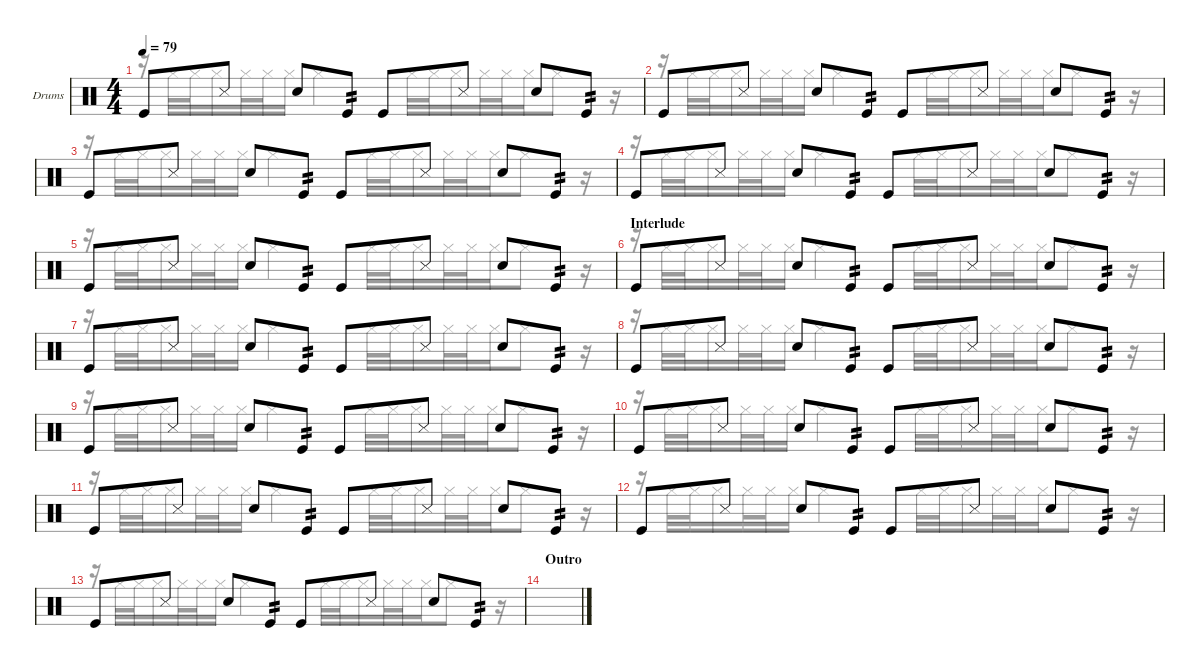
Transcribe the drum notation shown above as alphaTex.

\defaultSystemsLayout 4
\hideDynamics
\bracketExtendMode groupsimilarinstruments
\firstSystemTrackNameOrientation horizontal
\otherSystemsTrackNameOrientation horizontal
\track ("Drumkit" "Drums") {multiBarRest instrument percussion}
\staff {score}
\articulation defaults
\voice
\ts (4 4)
\tempo 79
\clef neutral
\ks c "Kick (hit)".8{dy mf} "Snare (side stick) 3".8 "Snare (hit) 2".8 "Kick (hit)".8{tp 2} "Kick (hit)".8 "Snare (side stick) 3".8 "Snare (hit) 2".8 "Kick (hit)".8{tp 2}
|
"Kick (hit)".8 "Snare (side stick) 3".8 "Snare (hit) 2".8 "Kick (hit)".8{tp 2} "Kick (hit)".8 "Snare (side stick) 3".8 "Snare (hit) 2".8 "Kick (hit)".8{tp 2} |
"Kick (hit)".8 "Snare (side stick) 3".8 "Snare (hit) 2".8 "Kick (hit)".8{tp 2} "Kick (hit)".8 "Snare (side stick) 3".8 "Snare (hit) 2".8 "Kick (hit)".8{tp 2} |
"Kick (hit)".8 "Snare (side stick) 3".8 "Snare (hit) 2".8 "Kick (hit)".8{tp 2} "Kick (hit)".8 "Snare (side stick) 3".8 "Snare (hit) 2".8 "Kick (hit)".8{tp 2} |
"Kick (hit)".8 "Snare (side stick) 3".8 "Snare (hit) 2".8 "Kick (hit)".8{tp 2} "Kick (hit)".8 "Snare (side stick) 3".8 "Snare (hit) 2".8 "Kick (hit)".8{tp 2} |
\section ("" "Interlude")
"Kick (hit)".8 "Snare (side stick) 3".8 "Snare (hit) 2".8 "Kick (hit)".8{tp 2} "Kick (hit)".8 "Snare (side stick) 3".8 "Snare (hit) 2".8 "Kick (hit)".8{tp 2} |
"Kick (hit)".8 "Snare (side stick) 3".8 "Snare (hit) 2".8 "Kick (hit)".8{tp 2} "Kick (hit)".8 "Snare (side stick) 3".8 "Snare (hit) 2".8 "Kick (hit)".8{tp 2} |
"Kick (hit)".8 "Snare (side stick) 3".8 "Snare (hit) 2".8 "Kick (hit)".8{tp 2} "Kick (hit)".8 "Snare (side stick) 3".8 "Snare (hit) 2".8 "Kick (hit)".8{tp 2} |
"Kick (hit)".8 "Snare (side stick) 3".8 "Snare (hit) 2".8 "Kick (hit)".8{tp 2} "Kick (hit)".8 "Snare (side stick) 3".8 "Snare (hit) 2".8 "Kick (hit)".8{tp 2} |
"Kick (hit)".8 "Snare (side stick) 3".8 "Snare (hit) 2".8 "Kick (hit)".8{tp 2} "Kick (hit)".8 "Snare (side stick) 3".8 "Snare (hit) 2".8 "Kick (hit)".8{tp 2} |
"Kick (hit)".8 "Snare (side stick) 3".8 "Snare (hit) 2".8 "Kick (hit)".8{tp 2} "Kick (hit)".8 "Snare (side stick) 3".8 "Snare (hit) 2".8 "Kick (hit)".8{tp 2} |
"Kick (hit)".8 "Snare (side stick) 3".8 "Snare (hit) 2".8 "Kick (hit)".8{tp 2} "Kick (hit)".8 "Snare (side stick) 3".8 "Snare (hit) 2".8 "Kick (hit)".8{tp 2} |
"Kick (hit)".8 "Snare (side stick) 3".8 "Snare (hit) 2".8 "Kick (hit)".8{tp 2} "Kick (hit)".8 "Snare (side stick) 3".8 "Snare (hit) 2".8 "Kick (hit)".8{tp 2} |
\section ("" "Outro")
|
|
\voice
\clef neutral
\ottava regular
\simile none
\ks c
r.16{dy mp} "Hi-Hat (closed)".32 "Hi-Hat (closed)".32 "Hi-Hat (closed)".16 "Hi-Hat (closed)".32 "Hi-Hat (closed)".32{beam merge} "Hi-Hat (closed)".16 "Hi-Hat (closed)".4 "Hi-Hat (closed)".32 "Hi-Hat (closed)".32 "Hi-Hat (closed)".16 "Hi-Hat (closed)".32 "Hi-Hat (closed)".32{beam merge} "Hi-Hat (closed)".16 "Hi-Hat (closed)".8 r.16 |
r.16 "Hi-Hat (closed)".32 "Hi-Hat (closed)".32 "Hi-Hat (closed)".16 "Hi-Hat (closed)".32 "Hi-Hat (closed)".32{beam merge} "Hi-Hat (closed)".16 "Hi-Hat (closed)".4 "Hi-Hat (closed)".32 "Hi-Hat (closed)".32 "Hi-Hat (closed)".16 "Hi-Hat (closed)".32 "Hi-Hat (closed)".32{beam merge} "Hi-Hat (closed)".16 "Hi-Hat (closed)".8 r.16 |
r.16 "Hi-Hat (closed)".32 "Hi-Hat (closed)".32 "Hi-Hat (closed)".16 "Hi-Hat (closed)".32 "Hi-Hat (closed)".32{beam merge} "Hi-Hat (closed)".16 "Hi-Hat (closed)".4 "Hi-Hat (closed)".32 "Hi-Hat (closed)".32 "Hi-Hat (closed)".16 "Hi-Hat (closed)".32 "Hi-Hat (closed)".32{beam merge} "Hi-Hat (closed)".16 "Hi-Hat (closed)".8 r.16 |
r.16 "Hi-Hat (closed)".32 "Hi-Hat (closed)".32 "Hi-Hat (closed)".16 "Hi-Hat (closed)".32 "Hi-Hat (closed)".32{beam merge} "Hi-Hat (closed)".16 "Hi-Hat (closed)".4 "Hi-Hat (closed)".32 "Hi-Hat (closed)".32 "Hi-Hat (closed)".16 "Hi-Hat (closed)".32 "Hi-Hat (closed)".32{beam merge} "Hi-Hat (closed)".16 "Hi-Hat (closed)".8 r.16 |
r.16 "Hi-Hat (closed)".32 "Hi-Hat (closed)".32 "Hi-Hat (closed)".16 "Hi-Hat (closed)".32 "Hi-Hat (closed)".32{beam merge} "Hi-Hat (closed)".16 "Hi-Hat (closed)".4 "Hi-Hat (closed)".32 "Hi-Hat (closed)".32 "Hi-Hat (closed)".16 "Hi-Hat (closed)".32 "Hi-Hat (closed)".32{beam merge} "Hi-Hat (closed)".16 "Hi-Hat (closed)".8 r.16 |
r.16 "Hi-Hat (closed)".32 "Hi-Hat (closed)".32 "Hi-Hat (closed)".16 "Hi-Hat (closed)".32 "Hi-Hat (closed)".32{beam merge} "Hi-Hat (closed)".16 "Hi-Hat (closed)".4 "Hi-Hat (closed)".32 "Hi-Hat (closed)".32 "Hi-Hat (closed)".16 "Hi-Hat (closed)".32 "Hi-Hat (closed)".32{beam merge} "Hi-Hat (closed)".16 "Hi-Hat (closed)".8 r.16 |
r.16 "Hi-Hat (closed)".32 "Hi-Hat (closed)".32 "Hi-Hat (closed)".16 "Hi-Hat (closed)".32 "Hi-Hat (closed)".32{beam merge} "Hi-Hat (closed)".16 "Hi-Hat (closed)".4 "Hi-Hat (closed)".32 "Hi-Hat (closed)".32 "Hi-Hat (closed)".16 "Hi-Hat (closed)".32 "Hi-Hat (closed)".32{beam merge} "Hi-Hat (closed)".16 "Hi-Hat (closed)".8 r.16 |
r.16 "Hi-Hat (closed)".32 "Hi-Hat (closed)".32 "Hi-Hat (closed)".16 "Hi-Hat (closed)".32 "Hi-Hat (closed)".32{beam merge} "Hi-Hat (closed)".16 "Hi-Hat (closed)".4 "Hi-Hat (closed)".32 "Hi-Hat (closed)".32 "Hi-Hat (closed)".16 "Hi-Hat (closed)".32 "Hi-Hat (closed)".32{beam merge} "Hi-Hat (closed)".16 "Hi-Hat (closed)".8 r.16 |
r.16 "Hi-Hat (closed)".32 "Hi-Hat (closed)".32 "Hi-Hat (closed)".16 "Hi-Hat (closed)".32 "Hi-Hat (closed)".32{beam merge} "Hi-Hat (closed)".16 "Hi-Hat (closed)".4 "Hi-Hat (closed)".32 "Hi-Hat (closed)".32 "Hi-Hat (closed)".16 "Hi-Hat (closed)".32 "Hi-Hat (closed)".32{beam merge} "Hi-Hat (closed)".16 "Hi-Hat (closed)".8 r.16 |
r.16 "Hi-Hat (closed)".32 "Hi-Hat (closed)".32 "Hi-Hat (closed)".16 "Hi-Hat (closed)".32 "Hi-Hat (closed)".32{beam merge} "Hi-Hat (closed)".16 "Hi-Hat (closed)".4 "Hi-Hat (closed)".32 "Hi-Hat (closed)".32 "Hi-Hat (closed)".16 "Hi-Hat (closed)".32 "Hi-Hat (closed)".32{beam merge} "Hi-Hat (closed)".16 "Hi-Hat (closed)".8 r.16 |
r.16 "Hi-Hat (closed)".32 "Hi-Hat (closed)".32 "Hi-Hat (closed)".16 "Hi-Hat (closed)".32 "Hi-Hat (closed)".32{beam merge} "Hi-Hat (closed)".16 "Hi-Hat (closed)".4 "Hi-Hat (closed)".32 "Hi-Hat (closed)".32 "Hi-Hat (closed)".16 "Hi-Hat (closed)".32 "Hi-Hat (closed)".32{beam merge} "Hi-Hat (closed)".16 "Hi-Hat (closed)".8 r.16 |
r.16 "Hi-Hat (closed)".32 "Hi-Hat (closed)".32 "Hi-Hat (closed)".16 "Hi-Hat (closed)".32 "Hi-Hat (closed)".32{beam merge} "Hi-Hat (closed)".16 "Hi-Hat (closed)".4 "Hi-Hat (closed)".32 "Hi-Hat (closed)".32 "Hi-Hat (closed)".16 "Hi-Hat (closed)".32 "Hi-Hat (closed)".32{beam merge} "Hi-Hat (closed)".16 "Hi-Hat (closed)".8 r.16 |
r.16 "Hi-Hat (closed)".32 "Hi-Hat (closed)".32 "Hi-Hat (closed)".16 "Hi-Hat (closed)".32 "Hi-Hat (closed)".32{beam merge} "Hi-Hat (closed)".16 "Hi-Hat (closed)".4 "Hi-Hat (closed)".32 "Hi-Hat (closed)".32 "Hi-Hat (closed)".16 "Hi-Hat (closed)".32 "Hi-Hat (closed)".32{beam merge} "Hi-Hat (closed)".16 "Hi-Hat (closed)".8 r.16 |
|
|
